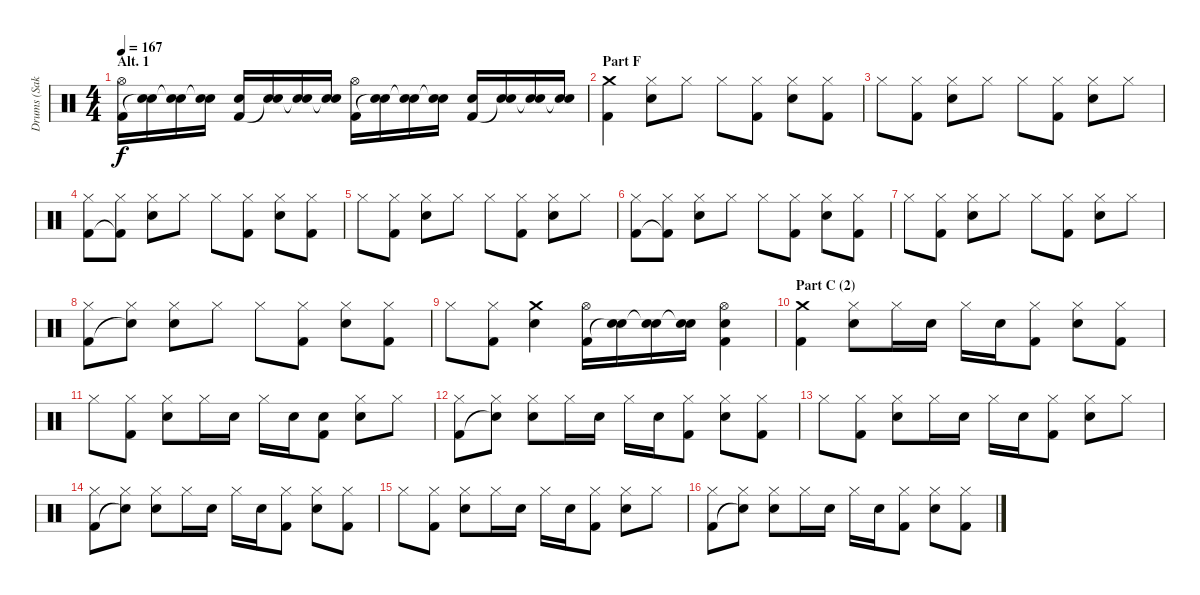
\track ("Drums (Sakura)" "Drums (Sak") {instrument percussion}
\staff {score}
\articulation defaults
\ts (4 4)
\section ("" "Alt. 1")
\tempo 167
\clef neutral
\ks c
("Hi-Hat (open)" "Kick (hit) 2").16{dy f} ("Electric Snare (hit)" "Snare (hit)"{t}).16 ("Electric Snare (hit)" "Snare (hit)"{t}).16 ("Electric Snare (hit)" "Snare (hit)"{t}).16 ("Electric Snare (hit)" "Kick (hit) 2").16 ("Electric Snare (hit)" "Snare (hit)"{t}).16 ("Electric Snare (hit)" "Snare (hit)"{t}).16 ("Electric Snare (hit)" "Snare (hit)"{t}).16 ("Hi-Hat (open)" "Kick (hit) 2").16 ("Electric Snare (hit)" "Snare (hit)"{t}).16 ("Electric Snare (hit)" "Snare (hit)"{t}).16 ("Electric Snare (hit)" "Snare (hit)"{t}).16 ("Electric Snare (hit)" "Kick (hit) 2").16 ("Electric Snare (hit)" "Snare (hit)"{t}).16 ("Electric Snare (hit)" "Snare (hit)"{t}).16 ("Electric Snare (hit)" "Snare (hit)"{t}).16 |
\section ("" "Part F")
("Crash medium (hit)" "Kick (hit) 2").4 ("Hi-Hat (closed)" "Electric Snare (hit)").8 "Hi-Hat (closed)".8 "Hi-Hat (closed)".8 ("Hi-Hat (closed)" "Kick (hit) 2").8 ("Hi-Hat (closed)" "Electric Snare (hit)").8 ("Hi-Hat (closed)" "Kick (hit) 2").8 |
"Hi-Hat (closed)".8 ("Hi-Hat (closed)" "Kick (hit) 2").8 ("Hi-Hat (closed)" "Electric Snare (hit)").8 "Hi-Hat (closed)".8 "Hi-Hat (closed)".8 ("Hi-Hat (closed)" "Kick (hit) 2").8 ("Hi-Hat (closed)" "Electric Snare (hit)").8 "Hi-Hat (closed)".8 |
("Hi-Hat (closed)" "Kick (hit) 2").8 ("Hi-Hat (closed)" "Kick (hit) 2"{t}).8 ("Hi-Hat (closed)" "Electric Snare (hit)").8 "Hi-Hat (closed)".8 "Hi-Hat (closed)".8 ("Hi-Hat (closed)" "Kick (hit) 2").8 ("Hi-Hat (closed)" "Electric Snare (hit)").8 ("Hi-Hat (closed)" "Kick (hit) 2").8 |
"Hi-Hat (closed)".8 ("Hi-Hat (closed)" "Kick (hit) 2").8 ("Hi-Hat (closed)" "Electric Snare (hit)").8 "Hi-Hat (closed)".8 "Hi-Hat (closed)".8 ("Hi-Hat (closed)" "Kick (hit) 2").8 ("Hi-Hat (closed)" "Electric Snare (hit)").8 "Hi-Hat (closed)".8 |
("Hi-Hat (closed)" "Kick (hit) 2").8 ("Hi-Hat (closed)" "Kick (hit) 2"{t}).8 ("Hi-Hat (closed)" "Electric Snare (hit)").8 "Hi-Hat (closed)".8 "Hi-Hat (closed)".8 ("Hi-Hat (closed)" "Kick (hit) 2").8 ("Hi-Hat (closed)" "Electric Snare (hit)").8 ("Hi-Hat (closed)" "Kick (hit) 2").8 |
"Hi-Hat (closed)".8 ("Hi-Hat (closed)" "Kick (hit) 2").8 ("Hi-Hat (closed)" "Electric Snare (hit)").8 "Hi-Hat (closed)".8 "Hi-Hat (closed)".8 ("Hi-Hat (closed)" "Kick (hit) 2").8 ("Hi-Hat (closed)" "Electric Snare (hit)").8 "Hi-Hat (closed)".8 |
("Hi-Hat (closed)" "Kick (hit) 2").8 ("Hi-Hat (closed)" "Snare (hit)"{t}).8 ("Hi-Hat (closed)" "Electric Snare (hit)").8 "Hi-Hat (closed)".8 "Hi-Hat (closed)".8 ("Hi-Hat (closed)" "Kick (hit) 2").8 ("Hi-Hat (closed)" "Electric Snare (hit)").8 ("Hi-Hat (closed)" "Kick (hit) 2").8 |
"Hi-Hat (closed)".8 ("Hi-Hat (closed)" "Kick (hit) 2").8 ("Crash medium (hit)" "Electric Snare (hit)").4 ("Hi-Hat (open)" "Kick (hit) 2").16 ("Electric Snare (hit)" "Snare (hit)"{t}).16 ("Electric Snare (hit)" "Snare (hit)"{t}).16 ("Electric Snare (hit)" "Snare (hit)"{t}).16 ("Hi-Hat (open)" "Electric Snare (hit)" "Kick (hit) 2").4 |
\section ("" "Part C (2)")
("Crash medium (hit)" "Kick (hit) 2").4 ("Hi-Hat (closed)" "Electric Snare (hit)").8 "Hi-Hat (closed)".16 "Electric Snare (hit)".16 "Hi-Hat (closed)".16 "Electric Snare (hit)".16 ("Hi-Hat (closed)" "Kick (hit) 2").8 ("Hi-Hat (closed)" "Electric Snare (hit)").8 ("Hi-Hat (closed)" "Kick (hit) 2").8 |
"Hi-Hat (closed)".8 ("Hi-Hat (closed)" "Kick (hit) 2").8 ("Hi-Hat (closed)" "Electric Snare (hit)").8 "Hi-Hat (closed)".16 "Electric Snare (hit)".16 "Hi-Hat (closed)".16 "Electric Snare (hit)".16 ("Electric Snare (hit)" "Kick (hit) 2").8 ("Hi-Hat (closed)" "Electric Snare (hit)").8 "Hi-Hat (closed)".8 |
("Hi-Hat (closed)" "Kick (hit) 2").8 ("Hi-Hat (closed)" "Snare (hit)"{t}).8 ("Hi-Hat (closed)" "Electric Snare (hit)").8 "Hi-Hat (closed)".16 "Electric Snare (hit)".16 "Hi-Hat (closed)".16 "Electric Snare (hit)".16 ("Hi-Hat (closed)" "Kick (hit) 2").8 ("Hi-Hat (closed)" "Electric Snare (hit)").8 ("Hi-Hat (closed)" "Kick (hit) 2").8 |
"Hi-Hat (closed)".8 ("Hi-Hat (closed)" "Kick (hit) 2").8 ("Hi-Hat (closed)" "Electric Snare (hit)").8 "Hi-Hat (closed)".16 "Electric Snare (hit)".16 "Hi-Hat (closed)".16 "Electric Snare (hit)".16 ("Hi-Hat (closed)" "Kick (hit) 2").8 ("Hi-Hat (closed)" "Electric Snare (hit)").8 "Hi-Hat (closed)".8 |
("Hi-Hat (closed)" "Kick (hit) 2").8 ("Hi-Hat (closed)" "Snare (hit)"{t}).8 ("Hi-Hat (closed)" "Electric Snare (hit)").8 "Hi-Hat (closed)".16 "Electric Snare (hit)".16 "Hi-Hat (closed)".16 "Electric Snare (hit)".16 ("Hi-Hat (closed)" "Kick (hit) 2").8 ("Hi-Hat (closed)" "Electric Snare (hit)").8 ("Hi-Hat (closed)" "Kick (hit) 2").8 |
"Hi-Hat (closed)".8 ("Hi-Hat (closed)" "Kick (hit) 2").8 ("Hi-Hat (closed)" "Electric Snare (hit)").8 "Hi-Hat (closed)".16 "Electric Snare (hit)".16 "Hi-Hat (closed)".16 "Electric Snare (hit)".16 ("Hi-Hat (closed)" "Kick (hit) 2").8 ("Hi-Hat (closed)" "Electric Snare (hit)").8 "Hi-Hat (closed)".8 |
("Hi-Hat (closed)" "Kick (hit) 2").8 ("Hi-Hat (closed)" "Snare (hit)"{t}).8 ("Hi-Hat (closed)" "Electric Snare (hit)").8 "Hi-Hat (closed)".16 "Electric Snare (hit)".16 "Hi-Hat (closed)".16 "Electric Snare (hit)".16 ("Hi-Hat (closed)" "Kick (hit) 2").8 ("Hi-Hat (closed)" "Electric Snare (hit)").8 ("Hi-Hat (closed)" "Kick (hit) 2").8
